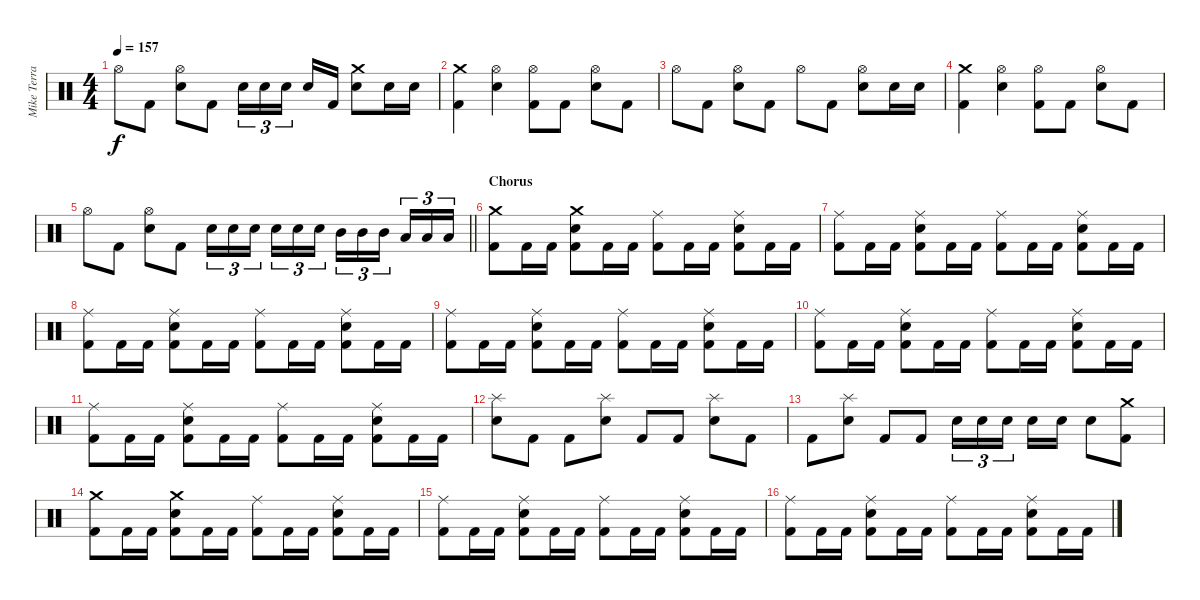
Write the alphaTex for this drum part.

\track ("Mike Terrana" "Mike Terra") {instrument percussion}
\staff {score}
\articulation defaults
\ts (4 4)
\tempo 157
\clef neutral
\ks c "Hi-Hat (open)".8{dy f} "Kick (hit) 2".8
("Hi-Hat (open)" "Snare (hit) 2").8 "Kick (hit) 2".8 "Snare (hit) 2".16{tu (3 2)} "Snare (hit) 2".16{tu (3 2)} "Snare (hit) 2".16{tu (3 2) beam splitsecondary} "Snare (hit) 2".16 "Kick (hit) 2".16 ("Crash medium (hit)" "Snare (hit) 2").8 "Snare (hit) 2".16 "Snare (hit) 2".16 |
("Crash medium (hit)" "Kick (hit) 2").4 ("Hi-Hat (open)" "Snare (hit) 2").4 ("Hi-Hat (open)" "Kick (hit) 2").8 "Kick (hit) 2".8 ("Hi-Hat (open)" "Snare (hit) 2").8 "Kick (hit) 2".8 |
"Hi-Hat (open)".8 "Kick (hit) 2".8 ("Hi-Hat (open)" "Snare (hit) 2").8 "Kick (hit) 2".8 "Hi-Hat (open)".8 "Kick (hit) 2".8 ("Hi-Hat (open)" "Snare (hit) 2").8 "Snare (hit) 2".16 "Snare (hit) 2".16 |
("Crash medium (hit)" "Kick (hit) 2").4 ("Hi-Hat (open)" "Snare (hit) 2").4 ("Hi-Hat (open)" "Kick (hit) 2").8 "Kick (hit) 2".8 ("Hi-Hat (open)" "Snare (hit) 2").8 "Kick (hit) 2".8 |
\barLineRight lightlight "Hi-Hat (open)".8 "Kick (hit) 2".8
("Hi-Hat (open)" "Snare (hit) 2").8 "Kick (hit) 2".8 "Snare (hit) 2".16{tu (3 2)} "Snare (hit) 2".16{tu (3 2)} "Snare (hit) 2".16{tu (3 2) beam splitsecondary} "Snare (hit) 2".16{tu (3 2)} "Snare (hit) 2".16{tu (3 2)} "Snare (hit) 2".16{tu (3 2)} "Mid Tom (hit)".16{tu (3 2)} "Mid Tom (hit)".16{tu (3 2)} "Mid Tom (hit)".16{tu (3 2) beam splitsecondary} "Low Tom (hit)".16{tu (3 2)} "Low Tom (hit)".16{tu (3 2)} "Low Tom (hit)".16{tu (3 2)} |
\section ("" "Chorus")
("Crash medium (hit)" "Kick (hit) 2").8 "Kick (hit) 2".16 "Kick (hit) 2".16 ("Crash medium (hit)" "Snare (hit) 2" "Kick (hit) 2").8 "Kick (hit) 2".16 "Kick (hit) 2".16 ("Ride (middle)" "Kick (hit) 2").8 "Kick (hit) 2".16 "Kick (hit) 2".16 ("Ride (middle)" "Snare (hit) 2" "Kick (hit) 2").8 "Kick (hit) 2".16 "Kick (hit) 2".16 |
("Ride (middle)" "Kick (hit) 2").8 "Kick (hit) 2".16 "Kick (hit) 2".16 ("Ride (middle)" "Snare (hit) 2" "Kick (hit) 2").8 "Kick (hit) 2".16 "Kick (hit) 2".16 ("Ride (middle)" "Kick (hit) 2").8 "Kick (hit) 2".16 "Kick (hit) 2".16 ("Ride (middle)" "Snare (hit) 2" "Kick (hit) 2").8 "Kick (hit) 2".16 "Kick (hit) 2".16 |
("Ride (middle)" "Kick (hit) 2").8 "Kick (hit) 2".16 "Kick (hit) 2".16 ("Ride (middle)" "Snare (hit) 2" "Kick (hit) 2").8 "Kick (hit) 2".16 "Kick (hit) 2".16 ("Ride (middle)" "Kick (hit) 2").8 "Kick (hit) 2".16 "Kick (hit) 2".16 ("Ride (middle)" "Snare (hit) 2" "Kick (hit) 2").8 "Kick (hit) 2".16 "Kick (hit) 2".16 |
("Ride (middle)" "Kick (hit) 2").8 "Kick (hit) 2".16 "Kick (hit) 2".16 ("Ride (middle)" "Snare (hit) 2" "Kick (hit) 2").8 "Kick (hit) 2".16 "Kick (hit) 2".16 ("Ride (middle)" "Kick (hit) 2").8 "Kick (hit) 2".16 "Kick (hit) 2".16 ("Ride (middle)" "Snare (hit) 2" "Kick (hit) 2").8 "Kick (hit) 2".16 "Kick (hit) 2".16 |
("Ride (middle)" "Kick (hit) 2").8 "Kick (hit) 2".16 "Kick (hit) 2".16 ("Ride (middle)" "Snare (hit) 2" "Kick (hit) 2").8 "Kick (hit) 2".16 "Kick (hit) 2".16 ("Ride (middle)" "Kick (hit) 2").8 "Kick (hit) 2".16 "Kick (hit) 2".16 ("Ride (middle)" "Snare (hit) 2" "Kick (hit) 2").8 "Kick (hit) 2".16 "Kick (hit) 2".16 |
("Ride (middle)" "Kick (hit) 2").8 "Kick (hit) 2".16 "Kick (hit) 2".16 ("Ride (middle)" "Snare (hit) 2" "Kick (hit) 2").8 "Kick (hit) 2".16 "Kick (hit) 2".16 ("Ride (middle)" "Kick (hit) 2").8 "Kick (hit) 2".16 "Kick (hit) 2".16 ("Ride (middle)" "Snare (hit) 2" "Kick (hit) 2").8 "Kick (hit) 2".16 "Kick (hit) 2".16 |
("Splash (hit)" "Snare (hit) 2").8 "Kick (hit) 2".8 "Kick (hit) 2".8 ("Splash (hit)" "Snare (hit) 2").8 "Kick (hit) 2".8 "Kick (hit) 2".8 ("Splash (hit)" "Snare (hit) 2").8 "Kick (hit) 2".8 |
"Kick (hit) 2".8 ("Splash (hit)" "Snare (hit) 2").8 "Kick (hit) 2".8 "Kick (hit) 2".8 "Snare (hit) 2".16{tu (3 2)} "Snare (hit) 2".16{tu (3 2)} "Snare (hit) 2".16{tu (3 2) beam splitsecondary} "Snare (hit) 2".16 "Snare (hit) 2".16 "Snare (hit) 2".8 ("Crash medium (hit)" "Kick (hit) 2").8 |
("Crash medium (hit)" "Kick (hit) 2").8 "Kick (hit) 2".16 "Kick (hit) 2".16 ("Crash medium (hit)" "Snare (hit) 2" "Kick (hit) 2").8 "Kick (hit) 2".16 "Kick (hit) 2".16 ("Ride (middle)" "Kick (hit) 2").8 "Kick (hit) 2".16 "Kick (hit) 2".16 ("Ride (middle)" "Snare (hit) 2" "Kick (hit) 2").8 "Kick (hit) 2".16 "Kick (hit) 2".16 |
("Ride (middle)" "Kick (hit) 2").8 "Kick (hit) 2".16 "Kick (hit) 2".16 ("Ride (middle)" "Snare (hit) 2" "Kick (hit) 2").8 "Kick (hit) 2".16 "Kick (hit) 2".16 ("Ride (middle)" "Kick (hit) 2").8 "Kick (hit) 2".16 "Kick (hit) 2".16 ("Ride (middle)" "Snare (hit) 2" "Kick (hit) 2").8 "Kick (hit) 2".16 "Kick (hit) 2".16 |
("Ride (middle)" "Kick (hit) 2").8 "Kick (hit) 2".16 "Kick (hit) 2".16 ("Ride (middle)" "Snare (hit) 2" "Kick (hit) 2").8 "Kick (hit) 2".16 "Kick (hit) 2".16 ("Ride (middle)" "Kick (hit) 2").8 "Kick (hit) 2".16 "Kick (hit) 2".16 ("Ride (middle)" "Snare (hit) 2" "Kick (hit) 2").8 "Kick (hit) 2".16 "Kick (hit) 2".16
